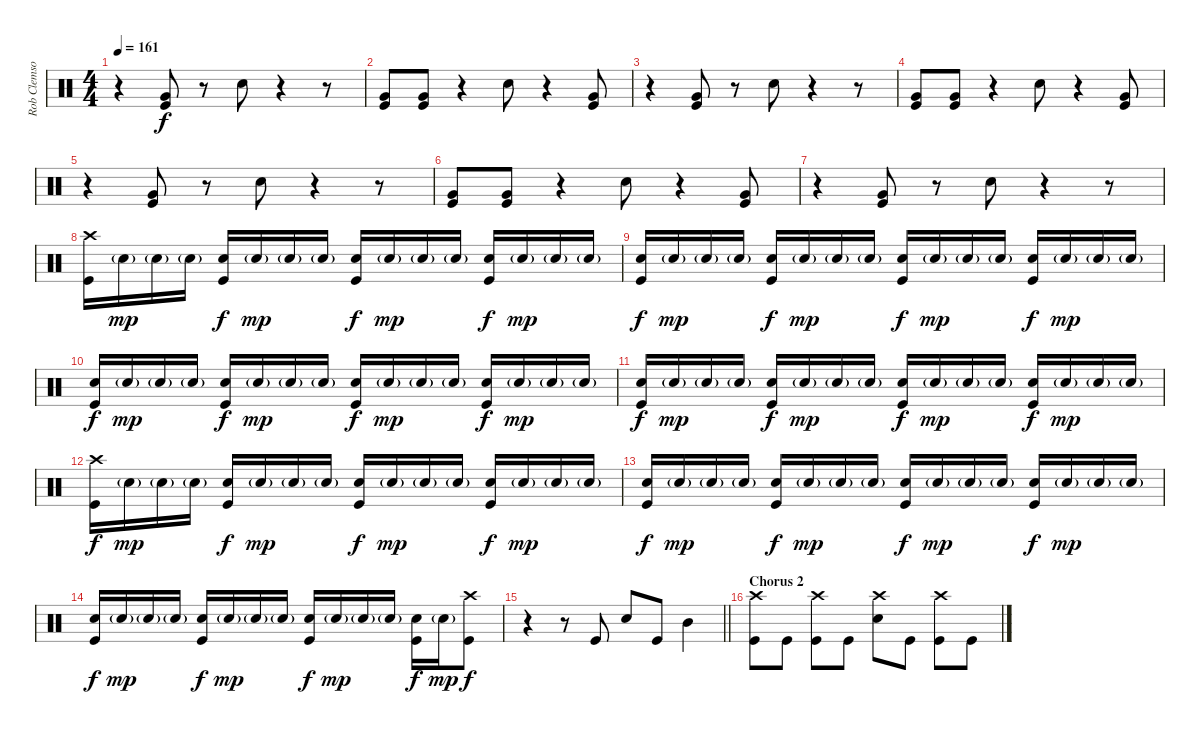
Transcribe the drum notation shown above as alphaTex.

\track ("Rob Clemson (Drums)" "Rob Clemso") {instrument percussion}
\staff {score}
\articulation defaults
\ts (4 4)
\tempo 161
\clef neutral
\ks c
r.4{dy f} ("Kick (hit)" "Very Low Tom (hit)").8 r.8 "Electric Snare (hit)".8 r.4 r.8 |
("Kick (hit)" "Very Low Tom (hit)").8 ("Kick (hit)" "Very Low Tom (hit)").8 r.4 "Electric Snare (hit)".8 r.4 ("Kick (hit)" "Very Low Tom (hit)").8 |
r.4 ("Kick (hit)" "Very Low Tom (hit)").8 r.8 "Electric Snare (hit)".8 r.4 r.8 |
("Kick (hit)" "Very Low Tom (hit)").8 ("Kick (hit)" "Very Low Tom (hit)").8 r.4 "Electric Snare (hit)".8 r.4 ("Kick (hit)" "Very Low Tom (hit)").8 |
r.4 ("Kick (hit)" "Very Low Tom (hit)").8 r.8 "Electric Snare (hit)".8 r.4 r.8 |
("Kick (hit)" "Very Low Tom (hit)").8 ("Kick (hit)" "Very Low Tom (hit)").8 r.4 "Electric Snare (hit)".8 r.4 ("Kick (hit)" "Very Low Tom (hit)").8 |
r.4 ("Kick (hit)" "Very Low Tom (hit)").8 r.8 "Electric Snare (hit)".8 r.4 r.8 |
("Crash high (hit)" "Kick (hit)").16 "Electric Snare (hit)"{g}.16{dy mp} "Electric Snare (hit)"{g}.16 "Electric Snare (hit)"{g}.16 ("Electric Snare (hit)" "Kick (hit)").16{dy f} "Electric Snare (hit)"{g}.16{dy mp} "Electric Snare (hit)"{g}.16 "Electric Snare (hit)"{g}.16 ("Electric Snare (hit)" "Kick (hit)").16{dy f} "Electric Snare (hit)"{g}.16{dy mp} "Electric Snare (hit)"{g}.16 "Electric Snare (hit)"{g}.16 ("Electric Snare (hit)" "Kick (hit)").16{dy f} "Electric Snare (hit)"{g}.16{dy mp} "Electric Snare (hit)"{g}.16 "Electric Snare (hit)"{g}.16 |
("Electric Snare (hit)" "Kick (hit)").16{dy f} "Electric Snare (hit)"{g}.16{dy mp} "Electric Snare (hit)"{g}.16 "Electric Snare (hit)"{g}.16 ("Electric Snare (hit)" "Kick (hit)").16{dy f} "Electric Snare (hit)"{g}.16{dy mp} "Electric Snare (hit)"{g}.16 "Electric Snare (hit)"{g}.16 ("Electric Snare (hit)" "Kick (hit)").16{dy f} "Electric Snare (hit)"{g}.16{dy mp} "Electric Snare (hit)"{g}.16 "Electric Snare (hit)"{g}.16 ("Electric Snare (hit)" "Kick (hit)").16{dy f} "Electric Snare (hit)"{g}.16{dy mp} "Electric Snare (hit)"{g}.16 "Electric Snare (hit)"{g}.16 |
("Electric Snare (hit)" "Kick (hit)").16{dy f} "Electric Snare (hit)"{g}.16{dy mp} "Electric Snare (hit)"{g}.16 "Electric Snare (hit)"{g}.16 ("Electric Snare (hit)" "Kick (hit)").16{dy f} "Electric Snare (hit)"{g}.16{dy mp} "Electric Snare (hit)"{g}.16 "Electric Snare (hit)"{g}.16 ("Electric Snare (hit)" "Kick (hit)").16{dy f} "Electric Snare (hit)"{g}.16{dy mp} "Electric Snare (hit)"{g}.16 "Electric Snare (hit)"{g}.16 ("Electric Snare (hit)" "Kick (hit)").16{dy f} "Electric Snare (hit)"{g}.16{dy mp} "Electric Snare (hit)"{g}.16 "Electric Snare (hit)"{g}.16 |
("Electric Snare (hit)" "Kick (hit)").16{dy f} "Electric Snare (hit)"{g}.16{dy mp} "Electric Snare (hit)"{g}.16 "Electric Snare (hit)"{g}.16 ("Electric Snare (hit)" "Kick (hit)").16{dy f} "Electric Snare (hit)"{g}.16{dy mp} "Electric Snare (hit)"{g}.16 "Electric Snare (hit)"{g}.16 ("Electric Snare (hit)" "Kick (hit)").16{dy f} "Electric Snare (hit)"{g}.16{dy mp} "Electric Snare (hit)"{g}.16 "Electric Snare (hit)"{g}.16 ("Electric Snare (hit)" "Kick (hit)").16{dy f} "Electric Snare (hit)"{g}.16{dy mp} "Electric Snare (hit)"{g}.16 "Electric Snare (hit)"{g}.16 |
("Crash high (hit)" "Kick (hit)").16{dy f} "Electric Snare (hit)"{g}.16{dy mp} "Electric Snare (hit)"{g}.16 "Electric Snare (hit)"{g}.16 ("Electric Snare (hit)" "Kick (hit)").16{dy f} "Electric Snare (hit)"{g}.16{dy mp} "Electric Snare (hit)"{g}.16 "Electric Snare (hit)"{g}.16 ("Electric Snare (hit)" "Kick (hit)").16{dy f} "Electric Snare (hit)"{g}.16{dy mp} "Electric Snare (hit)"{g}.16 "Electric Snare (hit)"{g}.16 ("Electric Snare (hit)" "Kick (hit)").16{dy f} "Electric Snare (hit)"{g}.16{dy mp} "Electric Snare (hit)"{g}.16 "Electric Snare (hit)"{g}.16 |
("Electric Snare (hit)" "Kick (hit)").16{dy f} "Electric Snare (hit)"{g}.16{dy mp} "Electric Snare (hit)"{g}.16 "Electric Snare (hit)"{g}.16 ("Electric Snare (hit)" "Kick (hit)").16{dy f} "Electric Snare (hit)"{g}.16{dy mp} "Electric Snare (hit)"{g}.16 "Electric Snare (hit)"{g}.16 ("Electric Snare (hit)" "Kick (hit)").16{dy f} "Electric Snare (hit)"{g}.16{dy mp} "Electric Snare (hit)"{g}.16 "Electric Snare (hit)"{g}.16 ("Electric Snare (hit)" "Kick (hit)").16{dy f} "Electric Snare (hit)"{g}.16{dy mp} "Electric Snare (hit)"{g}.16 "Electric Snare (hit)"{g}.16 |
("Electric Snare (hit)" "Kick (hit)").16{dy f} "Electric Snare (hit)"{g}.16{dy mp} "Electric Snare (hit)"{g}.16 "Electric Snare (hit)"{g}.16 ("Electric Snare (hit)" "Kick (hit)").16{dy f} "Electric Snare (hit)"{g}.16{dy mp} "Electric Snare (hit)"{g}.16 "Electric Snare (hit)"{g}.16 ("Electric Snare (hit)" "Kick (hit)").16{dy f} "Electric Snare (hit)"{g}.16{dy mp} "Electric Snare (hit)"{g}.16 "Electric Snare (hit)"{g}.16 ("Electric Snare (hit)" "Kick (hit)").16{dy f} "Electric Snare (hit)"{g}.16{dy mp} ("Kick (hit)" "Crash high (hit)").8{dy f} |
\barLineRight lightlight
r.4 r.8 "Kick (hit)".8 "Electric Snare (hit)".8 "Kick (hit)".8 "Mid Tom (hit)".4 |
\section ("" "Chorus 2")
("Kick (hit)" "Crash high (hit)").8 "Kick (hit)".8 ("Kick (hit)" "Crash high (hit)").8 "Kick (hit)".8 ("Electric Snare (hit)" "Crash high (hit)").8 "Kick (hit)".8 ("Kick (hit)" "Crash high (hit)").8 "Kick (hit)".8
